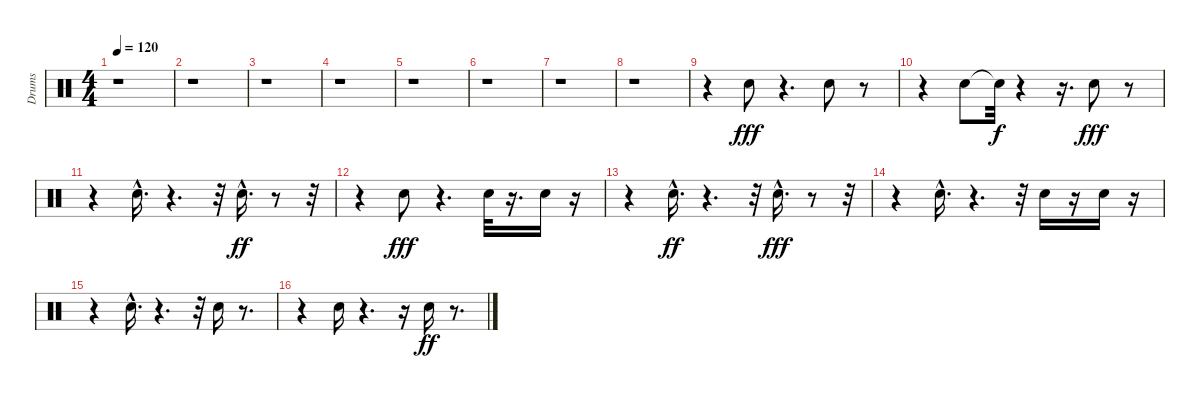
\track ("Drums" "Drums") {instrument percussion}
\staff {score}
\articulation defaults
\ts (4 4)
\tempo 120
\clef neutral
\ks c
r.1{dy fff} |
r.1 |
r.1 |
r.1 |
r.1 |
r.1 |
r.1 |
r.1 |
r.4 "Electric Snare (hit)".8 r.4{d} "Electric Snare (hit)".8 r.8 |
r.4 "Electric Snare (hit)".8 "Snare (hit)"{t}.32{dy f} r.4 r.16{d} "Electric Snare (hit)".8{dy fff} r.8 |
r.4 "Electric Snare (hit)"{hac}.16{d} r.4{d} r.32 "Electric Snare (hit)"{hac}.16{d dy ff} r.8 r.32 |
r.4 "Electric Snare (hit)".8{dy fff} r.4{d} "Electric Snare (hit)".32 r.16{d} "Electric Snare (hit)".16 r.16 |
r.4 "Electric Snare (hit)"{hac}.16{d dy ff} r.4{d} r.32 "Electric Snare (hit)"{hac}.16{d dy fff} r.8 r.32 |
r.4 "Electric Snare (hit)"{hac}.16{d} r.4{d} r.32 "Electric Snare (hit)".16 r.16 "Electric Snare (hit)".16 r.16 |
r.4 "Electric Snare (hit)"{hac}.16{d} r.4{d} r.32 "Electric Snare (hit)".16 r.8{d} |
r.4 "Electric Snare (hit)".16 r.4{d} r.16 "Electric Snare (hit)".16{dy ff} r.8{d}
